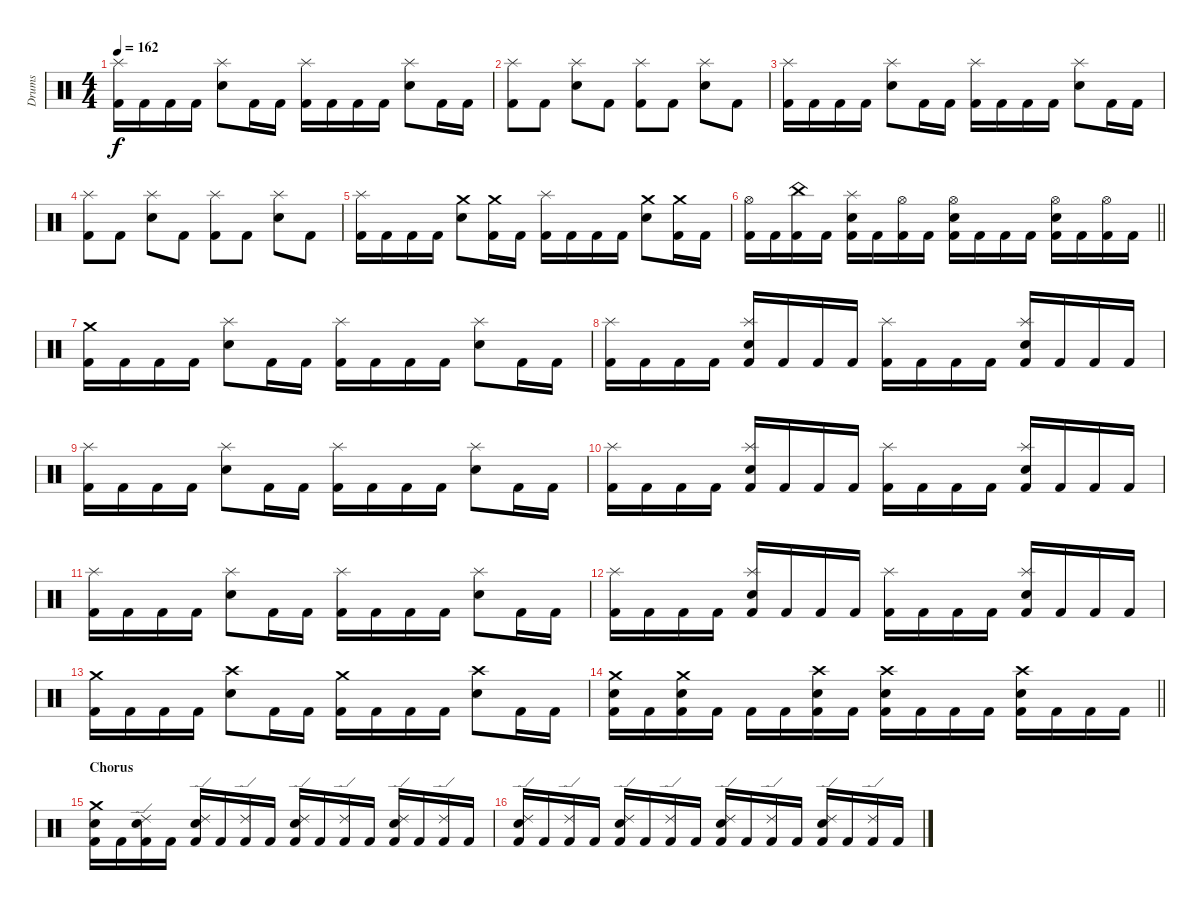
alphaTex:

\track ("Drums" "Drums") {instrument percussion}
\staff {score}
\articulation defaults
\ts (4 4)
\tempo 162
\clef neutral
\ks c
("Kick (hit) 2" "Splash (hit)").16{dy f} "Kick (hit) 2".16 "Kick (hit) 2".16 "Kick (hit) 2".16 ("Snare (hit) 2" "Splash (hit)").8 "Kick (hit) 2".16 "Kick (hit) 2".16 ("Kick (hit) 2" "Splash (hit)").16 "Kick (hit) 2".16 "Kick (hit) 2".16 "Kick (hit) 2".16 ("Snare (hit) 2" "Splash (hit)").8 "Kick (hit) 2".16 "Kick (hit) 2".16 |
("Kick (hit) 2" "Splash (hit)").8 "Kick (hit) 2".8 ("Snare (hit) 2" "Splash (hit)").8 "Kick (hit) 2".8 ("Kick (hit) 2" "Splash (hit)").8 "Kick (hit) 2".8 ("Snare (hit) 2" "Splash (hit)").8 "Kick (hit) 2".8 |
("Kick (hit) 2" "Splash (hit)").16 "Kick (hit) 2".16 "Kick (hit) 2".16 "Kick (hit) 2".16 ("Snare (hit) 2" "Splash (hit)").8 "Kick (hit) 2".16 "Kick (hit) 2".16 ("Kick (hit) 2" "Splash (hit)").16 "Kick (hit) 2".16 "Kick (hit) 2".16 "Kick (hit) 2".16 ("Snare (hit) 2" "Splash (hit)").8 "Kick (hit) 2".16 "Kick (hit) 2".16 |
("Kick (hit) 2" "Splash (hit)").8 "Kick (hit) 2".8 ("Snare (hit) 2" "Splash (hit)").8 "Kick (hit) 2".8 ("Kick (hit) 2" "Splash (hit)").8 "Kick (hit) 2".8 ("Snare (hit) 2" "Splash (hit)").8 "Kick (hit) 2".8 |
("Kick (hit) 2" "Splash (hit)").16 "Kick (hit) 2".16 "Kick (hit) 2".16 "Kick (hit) 2".16 ("Snare (hit) 2" "Crash medium (hit)").8 ("Kick (hit) 2" "Crash medium (hit)").16 "Kick (hit) 2".16 ("Kick (hit) 2" "Splash (hit)").16 "Kick (hit) 2".16 "Kick (hit) 2".16 "Kick (hit) 2".16 ("Snare (hit) 2" "Crash medium (hit)").8 ("Kick (hit) 2" "Crash medium (hit)").16 "Kick (hit) 2".16 |
\barLineRight lightlight
("Kick (hit) 2" "Hi-Hat (open)").16 "Kick (hit) 2".16 ("Kick (hit) 2" "China (hit)").16 "Kick (hit) 2".16 ("Kick (hit) 2" "Snare (hit) 2" "Splash (hit)").16 "Kick (hit) 2".16 ("Kick (hit) 2" "Hi-Hat (open)").16 "Kick (hit) 2".16 ("Kick (hit) 2" "Snare (hit) 2" "Hi-Hat (open)").16 "Kick (hit) 2".16 "Kick (hit) 2".16 "Kick (hit) 2".16 ("Kick (hit) 2" "Snare (hit) 2" "Hi-Hat (open)").16 "Kick (hit) 2".16 ("Kick (hit) 2" "Hi-Hat (open)").16 "Kick (hit) 2".16 |
\section ("" "")
("Kick (hit) 2" "Crash medium (hit)").16 "Kick (hit) 2".16 "Kick (hit) 2".16 "Kick (hit) 2".16 ("Snare (hit) 2" "Splash (hit)").8 "Kick (hit) 2".16 "Kick (hit) 2".16 ("Kick (hit) 2" "Splash (hit)").16 "Kick (hit) 2".16 "Kick (hit) 2".16 "Kick (hit) 2".16 ("Snare (hit) 2" "Splash (hit)").8 "Kick (hit) 2".16 "Kick (hit) 2".16 |
("Kick (hit) 2" "Splash (hit)").16 "Kick (hit) 2".16 "Kick (hit) 2".16 "Kick (hit) 2".16 ("Kick (hit) 2" "Snare (hit) 2" "Splash (hit)").16 "Kick (hit) 2".16 "Kick (hit) 2".16 "Kick (hit) 2".16 ("Kick (hit) 2" "Splash (hit)").16 "Kick (hit) 2".16 "Kick (hit) 2".16 "Kick (hit) 2".16 ("Kick (hit) 2" "Snare (hit) 2" "Splash (hit)").16 "Kick (hit) 2".16 "Kick (hit) 2".16 "Kick (hit) 2".16 |
("Kick (hit) 2" "Splash (hit)").16 "Kick (hit) 2".16 "Kick (hit) 2".16 "Kick (hit) 2".16 ("Snare (hit) 2" "Splash (hit)").8 "Kick (hit) 2".16 "Kick (hit) 2".16 ("Kick (hit) 2" "Splash (hit)").16 "Kick (hit) 2".16 "Kick (hit) 2".16 "Kick (hit) 2".16 ("Snare (hit) 2" "Splash (hit)").8 "Kick (hit) 2".16 "Kick (hit) 2".16 |
("Kick (hit) 2" "Splash (hit)").16 "Kick (hit) 2".16 "Kick (hit) 2".16 "Kick (hit) 2".16 ("Kick (hit) 2" "Snare (hit) 2" "Splash (hit)").16 "Kick (hit) 2".16 "Kick (hit) 2".16 "Kick (hit) 2".16 ("Kick (hit) 2" "Splash (hit)").16 "Kick (hit) 2".16 "Kick (hit) 2".16 "Kick (hit) 2".16 ("Kick (hit) 2" "Snare (hit) 2" "Splash (hit)").16 "Kick (hit) 2".16 "Kick (hit) 2".16 "Kick (hit) 2".16 |
("Kick (hit) 2" "Splash (hit)").16 "Kick (hit) 2".16 "Kick (hit) 2".16 "Kick (hit) 2".16 ("Snare (hit) 2" "Splash (hit)").8 "Kick (hit) 2".16 "Kick (hit) 2".16 ("Kick (hit) 2" "Splash (hit)").16 "Kick (hit) 2".16 "Kick (hit) 2".16 "Kick (hit) 2".16 ("Snare (hit) 2" "Splash (hit)").8 "Kick (hit) 2".16 "Kick (hit) 2".16 |
("Kick (hit) 2" "Splash (hit)").16 "Kick (hit) 2".16 "Kick (hit) 2".16 "Kick (hit) 2".16 ("Kick (hit) 2" "Snare (hit) 2" "Splash (hit)").16 "Kick (hit) 2".16 "Kick (hit) 2".16 "Kick (hit) 2".16 ("Kick (hit) 2" "Splash (hit)").16 "Kick (hit) 2".16 "Kick (hit) 2".16 "Kick (hit) 2".16 ("Kick (hit) 2" "Snare (hit) 2" "Splash (hit)").16 "Kick (hit) 2".16 "Kick (hit) 2".16 "Kick (hit) 2".16 |
("Kick (hit) 2" "Crash medium (hit)").16 "Kick (hit) 2".16 "Kick (hit) 2".16 "Kick (hit) 2".16 ("Snare (hit) 2" "Crash high (hit)").8 "Kick (hit) 2".16 "Kick (hit) 2".16 ("Kick (hit) 2" "Crash medium (hit)").16 "Kick (hit) 2".16 "Kick (hit) 2".16 "Kick (hit) 2".16 ("Snare (hit) 2" "Crash high (hit)").8 "Kick (hit) 2".16 "Kick (hit) 2".16 |
\barLineRight lightlight
("Kick (hit) 2" "Snare (hit) 2" "Crash medium (hit)").16 "Kick (hit) 2".16 ("Kick (hit) 2" "Snare (hit) 2" "Crash medium (hit)").16 "Kick (hit) 2".16 "Kick (hit) 2".16 "Kick (hit) 2".16 ("Kick (hit) 2" "Snare (hit) 2" "Crash high (hit)").16 "Kick (hit) 2".16 ("Kick (hit) 2" "Snare (hit) 2" "Crash high (hit)").16 "Kick (hit) 2".16 "Kick (hit) 2".16 "Kick (hit) 2".16 ("Kick (hit) 2" "Snare (hit) 2" "Crash high (hit)").16 "Kick (hit) 2".16 "Kick (hit) 2".16 "Kick (hit) 2".16 |
\section ("" "Chorus")
("Kick (hit) 2" "Snare (hit) 2" "Crash medium (hit)").16 "Kick (hit) 2".16 ("Kick (hit) 2" "Snare (hit) 2" "Ride (edge) 2").16 "Kick (hit) 2".16 ("Kick (hit) 2" "Snare (hit) 2" "Ride (edge) 2").16 "Kick (hit) 2".16 ("Kick (hit) 2" "Ride (edge) 2").16 "Kick (hit) 2".16 ("Kick (hit) 2" "Snare (hit) 2" "Ride (edge) 2").16 "Kick (hit) 2".16 ("Kick (hit) 2" "Ride (edge) 2").16 "Kick (hit) 2".16 ("Kick (hit) 2" "Snare (hit) 2" "Ride (edge) 2").16 "Kick (hit) 2".16 ("Kick (hit) 2" "Ride (edge) 2").16 "Kick (hit) 2".16 |
("Kick (hit) 2" "Snare (hit) 2" "Ride (edge) 2").16 "Kick (hit) 2".16 ("Kick (hit) 2" "Ride (edge) 2").16 "Kick (hit) 2".16 ("Kick (hit) 2" "Snare (hit) 2" "Ride (edge) 2").16 "Kick (hit) 2".16 ("Kick (hit) 2" "Ride (edge) 2").16 "Kick (hit) 2".16 ("Kick (hit) 2" "Snare (hit) 2" "Ride (edge) 2").16 "Kick (hit) 2".16 ("Kick (hit) 2" "Ride (edge) 2").16 "Kick (hit) 2".16 ("Kick (hit) 2" "Snare (hit) 2" "Ride (edge) 2").16 "Kick (hit) 2".16 ("Kick (hit) 2" "Ride (edge) 2").16 "Kick (hit) 2".16
